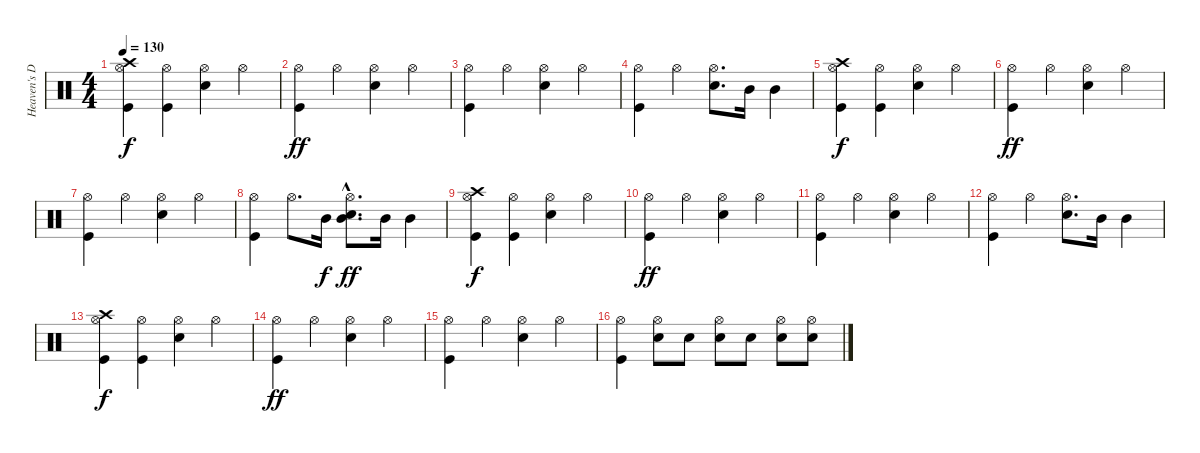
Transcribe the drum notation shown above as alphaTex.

\track ("Heaven's Door" "Heaven's D") {instrument percussion}
\staff {score}
\articulation defaults
\ts (4 4)
\tempo 130
\clef neutral
\ks c
("Crash high (hit)" "Hi-Hat (open)" "Kick (hit)").4{dy f} ("Hi-Hat (open)" "Kick (hit)").4 ("Hi-Hat (open)" "Electric Snare (hit)").4 "Hi-Hat (open)".4 |
("Hi-Hat (open)" "Kick (hit)").4{dy ff} "Hi-Hat (open)".4 ("Electric Snare (hit)" "Hi-Hat (open)").4 "Hi-Hat (open)".4 |
("Kick (hit)" "Hi-Hat (open)").4 "Hi-Hat (open)".4 ("Electric Snare (hit)" "Hi-Hat (open)").4 "Hi-Hat (open)".4 |
("Hi-Hat (open)" "Kick (hit)").4 "Hi-Hat (open)".4 ("Hi-Hat (open)" "Electric Snare (hit)").8{d} "Mid Tom (hit)".16 "Mid Tom (hit)".4 |
("Crash high (hit)" "Hi-Hat (open)" "Kick (hit)").4{dy f} ("Hi-Hat (open)" "Kick (hit)").4 ("Hi-Hat (open)" "Electric Snare (hit)").4 "Hi-Hat (open)".4 |
("Hi-Hat (open)" "Kick (hit)").4{dy ff} "Hi-Hat (open)".4 ("Electric Snare (hit)" "Hi-Hat (open)").4 "Hi-Hat (open)".4 |
("Kick (hit)" "Hi-Hat (open)").4 "Hi-Hat (open)".4 ("Electric Snare (hit)" "Hi-Hat (open)").4 "Hi-Hat (open)".4 |
("Hi-Hat (open)" "Kick (hit)").4 "Hi-Hat (open)".8{d} "Mid Tom (hit)".16{dy f} ("Mid Tom (hit)"{hac} "Hi-Hat (open)" "Electric Snare (hit)").8{d dy ff} "Mid Tom (hit)".16 "Mid Tom (hit)".4 |
("Crash high (hit)" "Hi-Hat (open)" "Kick (hit)").4{dy f} ("Hi-Hat (open)" "Kick (hit)").4 ("Hi-Hat (open)" "Electric Snare (hit)").4 "Hi-Hat (open)".4 |
("Hi-Hat (open)" "Kick (hit)").4{dy ff} "Hi-Hat (open)".4 ("Electric Snare (hit)" "Hi-Hat (open)").4 "Hi-Hat (open)".4 |
("Kick (hit)" "Hi-Hat (open)").4 "Hi-Hat (open)".4 ("Electric Snare (hit)" "Hi-Hat (open)").4 "Hi-Hat (open)".4 |
("Hi-Hat (open)" "Kick (hit)").4 "Hi-Hat (open)".4 ("Hi-Hat (open)" "Electric Snare (hit)").8{d} "Mid Tom (hit)".16 "Mid Tom (hit)".4 |
("Crash high (hit)" "Hi-Hat (open)" "Kick (hit)").4{dy f} ("Hi-Hat (open)" "Kick (hit)").4 ("Hi-Hat (open)" "Electric Snare (hit)").4 "Hi-Hat (open)".4 |
("Hi-Hat (open)" "Kick (hit)").4{dy ff} "Hi-Hat (open)".4 ("Electric Snare (hit)" "Hi-Hat (open)").4 "Hi-Hat (open)".4 |
("Kick (hit)" "Hi-Hat (open)").4 "Hi-Hat (open)".4 ("Electric Snare (hit)" "Hi-Hat (open)").4 "Hi-Hat (open)".4 |
("Hi-Hat (open)" "Kick (hit)").4 ("Hi-Hat (open)" "Electric Snare (hit)").8 "Electric Snare (hit)".8 ("Hi-Hat (open)" "Electric Snare (hit)").8 "Electric Snare (hit)".8 ("Hi-Hat (open)" "Electric Snare (hit)").8 ("Hi-Hat (open)" "Electric Snare (hit)").8
